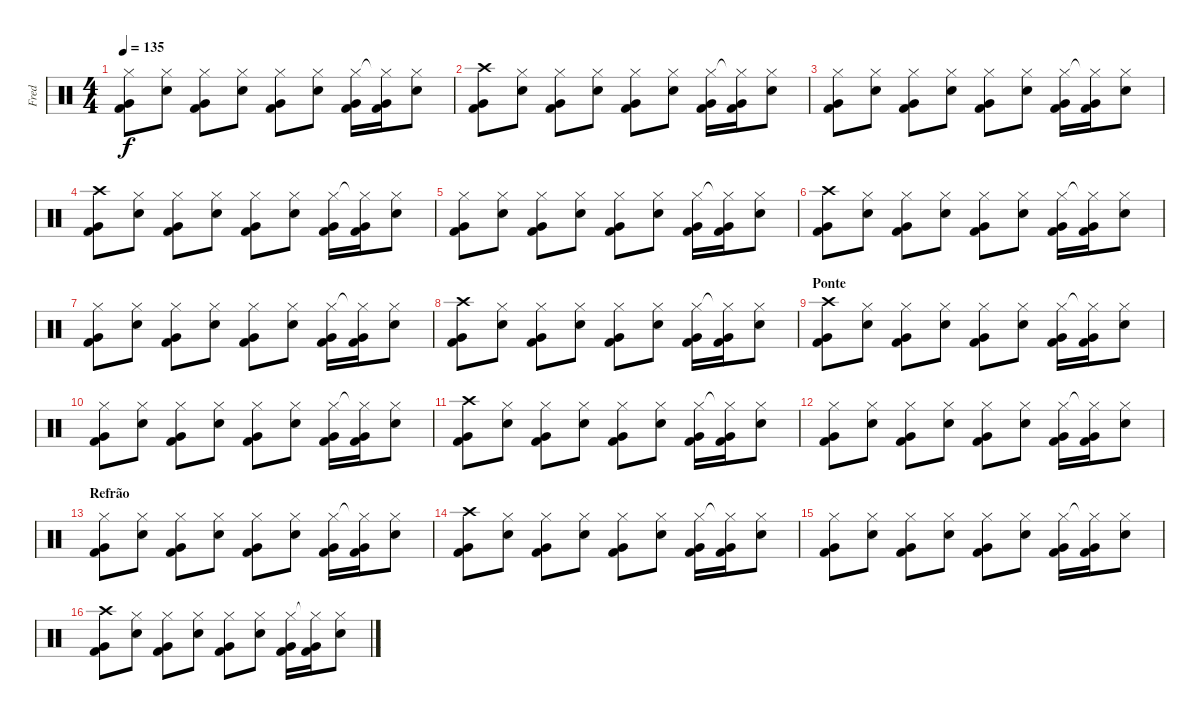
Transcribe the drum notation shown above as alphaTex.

\track ("Fred" "Fred") {instrument percussion}
\staff {score}
\articulation defaults
\ts (4 4)
\tempo 135
\clef neutral
\ks c
("Very Low Tom (hit)" "Kick (hit) 2" "Hi-Hat (closed)").8{dy f} ("Snare (hit) 2" "Hi-Hat (closed)").8 ("Very Low Tom (hit)" "Kick (hit) 2" "Hi-Hat (closed)").8 ("Snare (hit) 2" "Hi-Hat (closed)").8 ("Very Low Tom (hit)" "Kick (hit) 2" "Hi-Hat (closed)").8 ("Snare (hit) 2" "Hi-Hat (closed)").8 ("Very Low Tom (hit)" "Kick (hit) 2" "Hi-Hat (closed)").16 ("Very Low Tom (hit)" "Kick (hit) 2" "Hi-Hat (closed)"{t}).16 ("Snare (hit) 2" "Hi-Hat (closed)").8 |
("Very Low Tom (hit)" "Kick (hit) 2" "Crash high (hit)").8 ("Snare (hit) 2" "Hi-Hat (closed)").8 ("Very Low Tom (hit)" "Kick (hit) 2" "Hi-Hat (closed)").8 ("Snare (hit) 2" "Hi-Hat (closed)").8 ("Very Low Tom (hit)" "Kick (hit) 2" "Hi-Hat (closed)").8 ("Snare (hit) 2" "Hi-Hat (closed)").8 ("Very Low Tom (hit)" "Kick (hit) 2" "Hi-Hat (closed)").16 ("Very Low Tom (hit)" "Kick (hit) 2" "Hi-Hat (closed)"{t}).16 ("Snare (hit) 2" "Hi-Hat (closed)").8 |
("Very Low Tom (hit)" "Kick (hit) 2" "Hi-Hat (closed)").8 ("Snare (hit) 2" "Hi-Hat (closed)").8 ("Very Low Tom (hit)" "Kick (hit) 2" "Hi-Hat (closed)").8 ("Snare (hit) 2" "Hi-Hat (closed)").8 ("Very Low Tom (hit)" "Kick (hit) 2" "Hi-Hat (closed)").8 ("Snare (hit) 2" "Hi-Hat (closed)").8 ("Very Low Tom (hit)" "Kick (hit) 2" "Hi-Hat (closed)").16 ("Very Low Tom (hit)" "Kick (hit) 2" "Hi-Hat (closed)"{t}).16 ("Snare (hit) 2" "Hi-Hat (closed)").8 |
("Very Low Tom (hit)" "Kick (hit) 2" "Crash high (hit)").8 ("Snare (hit) 2" "Hi-Hat (closed)").8 ("Very Low Tom (hit)" "Kick (hit) 2" "Hi-Hat (closed)").8 ("Snare (hit) 2" "Hi-Hat (closed)").8 ("Very Low Tom (hit)" "Kick (hit) 2" "Hi-Hat (closed)").8 ("Snare (hit) 2" "Hi-Hat (closed)").8 ("Very Low Tom (hit)" "Kick (hit) 2" "Hi-Hat (closed)").16 ("Very Low Tom (hit)" "Kick (hit) 2" "Hi-Hat (closed)"{t}).16 ("Snare (hit) 2" "Hi-Hat (closed)").8 |
("Very Low Tom (hit)" "Kick (hit) 2" "Hi-Hat (closed)").8 ("Snare (hit) 2" "Hi-Hat (closed)").8 ("Very Low Tom (hit)" "Kick (hit) 2" "Hi-Hat (closed)").8 ("Snare (hit) 2" "Hi-Hat (closed)").8 ("Very Low Tom (hit)" "Kick (hit) 2" "Hi-Hat (closed)").8 ("Snare (hit) 2" "Hi-Hat (closed)").8 ("Very Low Tom (hit)" "Kick (hit) 2" "Hi-Hat (closed)").16 ("Very Low Tom (hit)" "Kick (hit) 2" "Hi-Hat (closed)"{t}).16 ("Snare (hit) 2" "Hi-Hat (closed)").8 |
("Very Low Tom (hit)" "Kick (hit) 2" "Crash high (hit)").8 ("Snare (hit) 2" "Hi-Hat (closed)").8 ("Very Low Tom (hit)" "Kick (hit) 2" "Hi-Hat (closed)").8 ("Snare (hit) 2" "Hi-Hat (closed)").8 ("Very Low Tom (hit)" "Kick (hit) 2" "Hi-Hat (closed)").8 ("Snare (hit) 2" "Hi-Hat (closed)").8 ("Very Low Tom (hit)" "Kick (hit) 2" "Hi-Hat (closed)").16 ("Very Low Tom (hit)" "Kick (hit) 2" "Hi-Hat (closed)"{t}).16 ("Snare (hit) 2" "Hi-Hat (closed)").8 |
("Very Low Tom (hit)" "Kick (hit) 2" "Hi-Hat (closed)").8 ("Snare (hit) 2" "Hi-Hat (closed)").8 ("Very Low Tom (hit)" "Kick (hit) 2" "Hi-Hat (closed)").8 ("Snare (hit) 2" "Hi-Hat (closed)").8 ("Very Low Tom (hit)" "Kick (hit) 2" "Hi-Hat (closed)").8 ("Snare (hit) 2" "Hi-Hat (closed)").8 ("Very Low Tom (hit)" "Kick (hit) 2" "Hi-Hat (closed)").16 ("Very Low Tom (hit)" "Kick (hit) 2" "Hi-Hat (closed)"{t}).16 ("Snare (hit) 2" "Hi-Hat (closed)").8 |
("Very Low Tom (hit)" "Kick (hit) 2" "Crash high (hit)").8 ("Snare (hit) 2" "Hi-Hat (closed)").8 ("Very Low Tom (hit)" "Kick (hit) 2" "Hi-Hat (closed)").8 ("Snare (hit) 2" "Hi-Hat (closed)").8 ("Very Low Tom (hit)" "Kick (hit) 2" "Hi-Hat (closed)").8 ("Snare (hit) 2" "Hi-Hat (closed)").8 ("Very Low Tom (hit)" "Kick (hit) 2" "Hi-Hat (closed)").16 ("Very Low Tom (hit)" "Kick (hit) 2" "Hi-Hat (closed)"{t}).16 ("Snare (hit) 2" "Hi-Hat (closed)").8 |
\section ("" "Ponte")
("Very Low Tom (hit)" "Kick (hit) 2" "Crash high (hit)").8 ("Snare (hit) 2" "Hi-Hat (closed)").8 ("Very Low Tom (hit)" "Kick (hit) 2" "Hi-Hat (closed)").8 ("Snare (hit) 2" "Hi-Hat (closed)").8 ("Very Low Tom (hit)" "Kick (hit) 2" "Hi-Hat (closed)").8 ("Snare (hit) 2" "Hi-Hat (closed)").8 ("Very Low Tom (hit)" "Kick (hit) 2" "Hi-Hat (closed)").16 ("Very Low Tom (hit)" "Kick (hit) 2" "Hi-Hat (closed)"{t}).16 ("Snare (hit) 2" "Hi-Hat (closed)").8 |
("Very Low Tom (hit)" "Kick (hit) 2" "Hi-Hat (closed)").8 ("Snare (hit) 2" "Hi-Hat (closed)").8 ("Very Low Tom (hit)" "Kick (hit) 2" "Hi-Hat (closed)").8 ("Snare (hit) 2" "Hi-Hat (closed)").8 ("Very Low Tom (hit)" "Kick (hit) 2" "Hi-Hat (closed)").8 ("Snare (hit) 2" "Hi-Hat (closed)").8 ("Very Low Tom (hit)" "Kick (hit) 2" "Hi-Hat (closed)").16 ("Very Low Tom (hit)" "Kick (hit) 2" "Hi-Hat (closed)"{t}).16 ("Snare (hit) 2" "Hi-Hat (closed)").8 |
("Very Low Tom (hit)" "Kick (hit) 2" "Crash high (hit)").8 ("Snare (hit) 2" "Hi-Hat (closed)").8 ("Very Low Tom (hit)" "Kick (hit) 2" "Hi-Hat (closed)").8 ("Snare (hit) 2" "Hi-Hat (closed)").8 ("Very Low Tom (hit)" "Kick (hit) 2" "Hi-Hat (closed)").8 ("Snare (hit) 2" "Hi-Hat (closed)").8 ("Very Low Tom (hit)" "Kick (hit) 2" "Hi-Hat (closed)").16 ("Very Low Tom (hit)" "Kick (hit) 2" "Hi-Hat (closed)"{t}).16 ("Snare (hit) 2" "Hi-Hat (closed)").8 |
("Very Low Tom (hit)" "Kick (hit) 2" "Hi-Hat (closed)").8 ("Snare (hit) 2" "Hi-Hat (closed)").8 ("Very Low Tom (hit)" "Kick (hit) 2" "Hi-Hat (closed)").8 ("Snare (hit) 2" "Hi-Hat (closed)").8 ("Very Low Tom (hit)" "Kick (hit) 2" "Hi-Hat (closed)").8 ("Snare (hit) 2" "Hi-Hat (closed)").8 ("Very Low Tom (hit)" "Kick (hit) 2" "Hi-Hat (closed)").16 ("Very Low Tom (hit)" "Kick (hit) 2" "Hi-Hat (closed)"{t}).16 ("Snare (hit) 2" "Hi-Hat (closed)").8 |
\section ("" "Refrão")
("Very Low Tom (hit)" "Kick (hit) 2" "Hi-Hat (closed)").8 ("Snare (hit) 2" "Hi-Hat (closed)").8 ("Very Low Tom (hit)" "Kick (hit) 2" "Hi-Hat (closed)").8 ("Snare (hit) 2" "Hi-Hat (closed)").8 ("Very Low Tom (hit)" "Kick (hit) 2" "Hi-Hat (closed)").8 ("Snare (hit) 2" "Hi-Hat (closed)").8 ("Very Low Tom (hit)" "Kick (hit) 2" "Hi-Hat (closed)").16 ("Very Low Tom (hit)" "Kick (hit) 2" "Hi-Hat (closed)"{t}).16 ("Snare (hit) 2" "Hi-Hat (closed)").8 |
("Very Low Tom (hit)" "Kick (hit) 2" "Crash high (hit)").8 ("Snare (hit) 2" "Hi-Hat (closed)").8 ("Very Low Tom (hit)" "Kick (hit) 2" "Hi-Hat (closed)").8 ("Snare (hit) 2" "Hi-Hat (closed)").8 ("Very Low Tom (hit)" "Kick (hit) 2" "Hi-Hat (closed)").8 ("Snare (hit) 2" "Hi-Hat (closed)").8 ("Very Low Tom (hit)" "Kick (hit) 2" "Hi-Hat (closed)").16 ("Very Low Tom (hit)" "Kick (hit) 2" "Hi-Hat (closed)"{t}).16 ("Snare (hit) 2" "Hi-Hat (closed)").8 |
("Very Low Tom (hit)" "Kick (hit) 2" "Hi-Hat (closed)").8 ("Snare (hit) 2" "Hi-Hat (closed)").8 ("Very Low Tom (hit)" "Kick (hit) 2" "Hi-Hat (closed)").8 ("Snare (hit) 2" "Hi-Hat (closed)").8 ("Very Low Tom (hit)" "Kick (hit) 2" "Hi-Hat (closed)").8 ("Snare (hit) 2" "Hi-Hat (closed)").8 ("Very Low Tom (hit)" "Kick (hit) 2" "Hi-Hat (closed)").16 ("Very Low Tom (hit)" "Kick (hit) 2" "Hi-Hat (closed)"{t}).16 ("Snare (hit) 2" "Hi-Hat (closed)").8 |
("Very Low Tom (hit)" "Kick (hit) 2" "Crash high (hit)").8 ("Snare (hit) 2" "Hi-Hat (closed)").8 ("Very Low Tom (hit)" "Kick (hit) 2" "Hi-Hat (closed)").8 ("Snare (hit) 2" "Hi-Hat (closed)").8 ("Very Low Tom (hit)" "Kick (hit) 2" "Hi-Hat (closed)").8 ("Snare (hit) 2" "Hi-Hat (closed)").8 ("Very Low Tom (hit)" "Kick (hit) 2" "Hi-Hat (closed)").16 ("Very Low Tom (hit)" "Kick (hit) 2" "Hi-Hat (closed)"{t}).16 ("Snare (hit) 2" "Hi-Hat (closed)").8
